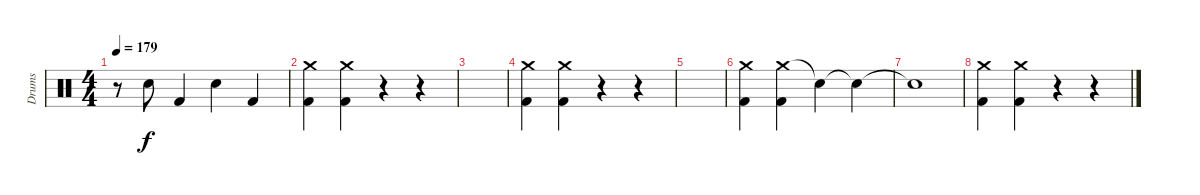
\track ("Drums" "Drums") {instrument percussion}
\staff {score}
\articulation defaults
\ts (4 4)
\tempo 179
\clef neutral
\ks c
r.8{dy f} "Snare (hit) 2".8 "Kick (hit) 2".4 "Snare (hit) 2".4 "Kick (hit) 2".4 |
("Crash medium (hit)" "Kick (hit) 2").4 ("Crash medium (hit)" "Kick (hit) 2").4 r.4 r.4 |
|
("Crash medium (hit)" "Kick (hit) 2").4 ("Crash medium (hit)" "Kick (hit) 2").4 r.4 r.4 |
|
("Crash medium (hit)" "Kick (hit) 2").4 ("Crash medium (hit)" "Kick (hit) 2").4 "Snare (hit)"{t}.4 "Snare (hit)"{t}.4 |
"Snare (hit)"{t}.1 |
("Crash medium (hit)" "Kick (hit) 2").4 ("Crash medium (hit)" "Kick (hit) 2").4 r.4 r.4
